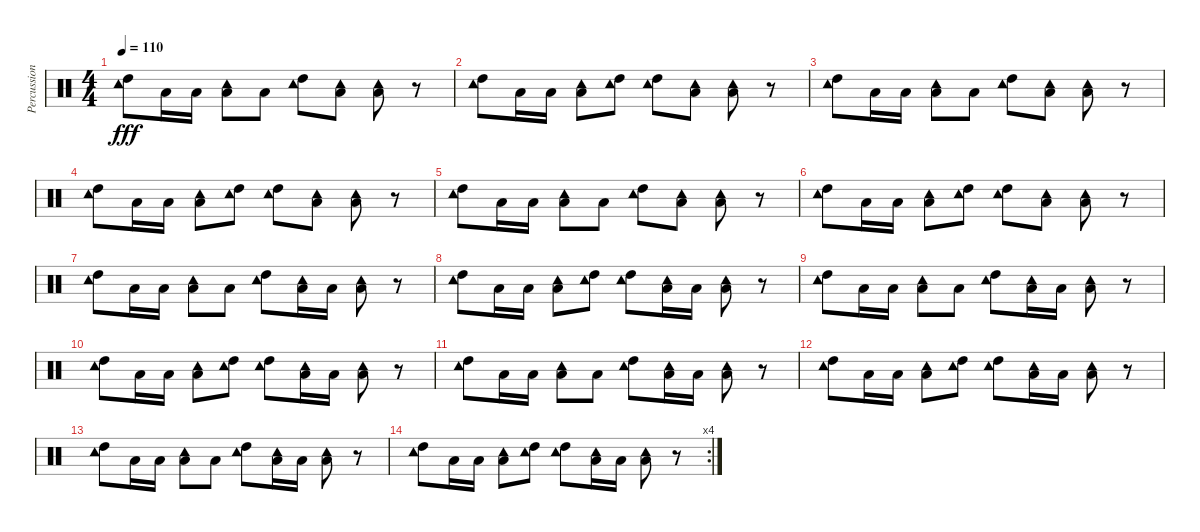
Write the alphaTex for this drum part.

\track ("Percussions" "Percussion") {instrument percussion}
\staff {score}
\articulation defaults
\ts (4 4)
\tempo 110
\clef neutral
\ks c
("Tambourine (hit)" "High Tom (hit)").8{dy fff} "Low Tom (hit)".16 "Low Tom (hit)".16 ("Tambourine (hit)" "Low Tom (hit)").8 "Low Tom (hit)".8 ("Tambourine (hit)" "High Tom (hit)").8 ("Tambourine (hit)" "Low Tom (hit)").8 ("Tambourine (hit)" "Low Tom (hit)").8 r.8 |
("Tambourine (hit)" "High Tom (hit)").8 "Low Tom (hit)".16 "Low Tom (hit)".16 ("Tambourine (hit)" "Low Tom (hit)").8 ("Tambourine (hit)" "High Tom (hit)").8 ("Tambourine (hit)" "High Tom (hit)").8 ("Tambourine (hit)" "Low Tom (hit)").8 ("Tambourine (hit)" "Low Tom (hit)").8 r.8 |
("Tambourine (hit)" "High Tom (hit)").8 "Low Tom (hit)".16 "Low Tom (hit)".16 ("Tambourine (hit)" "Low Tom (hit)").8 "Low Tom (hit)".8 ("Tambourine (hit)" "High Tom (hit)").8 ("Tambourine (hit)" "Low Tom (hit)").8 ("Tambourine (hit)" "Low Tom (hit)").8 r.8 |
("Tambourine (hit)" "High Tom (hit)").8 "Low Tom (hit)".16 "Low Tom (hit)".16 ("Tambourine (hit)" "Low Tom (hit)").8 ("Tambourine (hit)" "High Tom (hit)").8 ("Tambourine (hit)" "High Tom (hit)").8 ("Tambourine (hit)" "Low Tom (hit)").8 ("Tambourine (hit)" "Low Tom (hit)").8 r.8 |
("Tambourine (hit)" "High Tom (hit)").8 "Low Tom (hit)".16 "Low Tom (hit)".16 ("Tambourine (hit)" "Low Tom (hit)").8 "Low Tom (hit)".8 ("Tambourine (hit)" "High Tom (hit)").8 ("Tambourine (hit)" "Low Tom (hit)").8 ("Tambourine (hit)" "Low Tom (hit)").8 r.8 |
("Tambourine (hit)" "High Tom (hit)").8 "Low Tom (hit)".16 "Low Tom (hit)".16 ("Tambourine (hit)" "Low Tom (hit)").8 ("Tambourine (hit)" "High Tom (hit)").8 ("Tambourine (hit)" "High Tom (hit)").8 ("Tambourine (hit)" "Low Tom (hit)").8 ("Tambourine (hit)" "Low Tom (hit)").8 r.8 |
("Tambourine (hit)" "High Tom (hit)").8 "Low Tom (hit)".16 "Low Tom (hit)".16 ("Tambourine (hit)" "Low Tom (hit)").8 "Low Tom (hit)".8 ("Tambourine (hit)" "High Tom (hit)").8 ("Tambourine (hit)" "Low Tom (hit)").16 "Low Tom (hit)".16 ("Tambourine (hit)" "Low Tom (hit)").8 r.8 |
("Tambourine (hit)" "High Tom (hit)").8 "Low Tom (hit)".16 "Low Tom (hit)".16 ("Tambourine (hit)" "Low Tom (hit)").8 ("Tambourine (hit)" "High Tom (hit)").8 ("Tambourine (hit)" "High Tom (hit)").8 ("Tambourine (hit)" "Low Tom (hit)").16 "Low Tom (hit)".16 ("Tambourine (hit)" "Low Tom (hit)").8 r.8 |
("Tambourine (hit)" "High Tom (hit)").8 "Low Tom (hit)".16 "Low Tom (hit)".16 ("Tambourine (hit)" "Low Tom (hit)").8 "Low Tom (hit)".8 ("Tambourine (hit)" "High Tom (hit)").8 ("Tambourine (hit)" "Low Tom (hit)").16 "Low Tom (hit)".16 ("Tambourine (hit)" "Low Tom (hit)").8 r.8 |
("Tambourine (hit)" "High Tom (hit)").8 "Low Tom (hit)".16 "Low Tom (hit)".16 ("Tambourine (hit)" "Low Tom (hit)").8 ("Tambourine (hit)" "High Tom (hit)").8 ("Tambourine (hit)" "High Tom (hit)").8 ("Tambourine (hit)" "Low Tom (hit)").16 "Low Tom (hit)".16 ("Tambourine (hit)" "Low Tom (hit)").8 r.8 |
("Tambourine (hit)" "High Tom (hit)").8 "Low Tom (hit)".16 "Low Tom (hit)".16 ("Tambourine (hit)" "Low Tom (hit)").8 "Low Tom (hit)".8 ("Tambourine (hit)" "High Tom (hit)").8 ("Tambourine (hit)" "Low Tom (hit)").16 "Low Tom (hit)".16 ("Tambourine (hit)" "Low Tom (hit)").8 r.8 |
("Tambourine (hit)" "High Tom (hit)").8 "Low Tom (hit)".16 "Low Tom (hit)".16 ("Tambourine (hit)" "Low Tom (hit)").8 ("Tambourine (hit)" "High Tom (hit)").8 ("Tambourine (hit)" "High Tom (hit)").8 ("Tambourine (hit)" "Low Tom (hit)").16 "Low Tom (hit)".16 ("Tambourine (hit)" "Low Tom (hit)").8 r.8 |
("Tambourine (hit)" "High Tom (hit)").8 "Low Tom (hit)".16 "Low Tom (hit)".16 ("Tambourine (hit)" "Low Tom (hit)").8 "Low Tom (hit)".8 ("Tambourine (hit)" "High Tom (hit)").8 ("Tambourine (hit)" "Low Tom (hit)").16 "Low Tom (hit)".16 ("Tambourine (hit)" "Low Tom (hit)").8 r.8 |
\rc 4
("Tambourine (hit)" "High Tom (hit)").8 "Low Tom (hit)".16 "Low Tom (hit)".16 ("Tambourine (hit)" "Low Tom (hit)").8 ("Tambourine (hit)" "High Tom (hit)").8 ("Tambourine (hit)" "High Tom (hit)").8 ("Tambourine (hit)" "Low Tom (hit)").16 "Low Tom (hit)".16 ("Tambourine (hit)" "Low Tom (hit)").8 r.8
